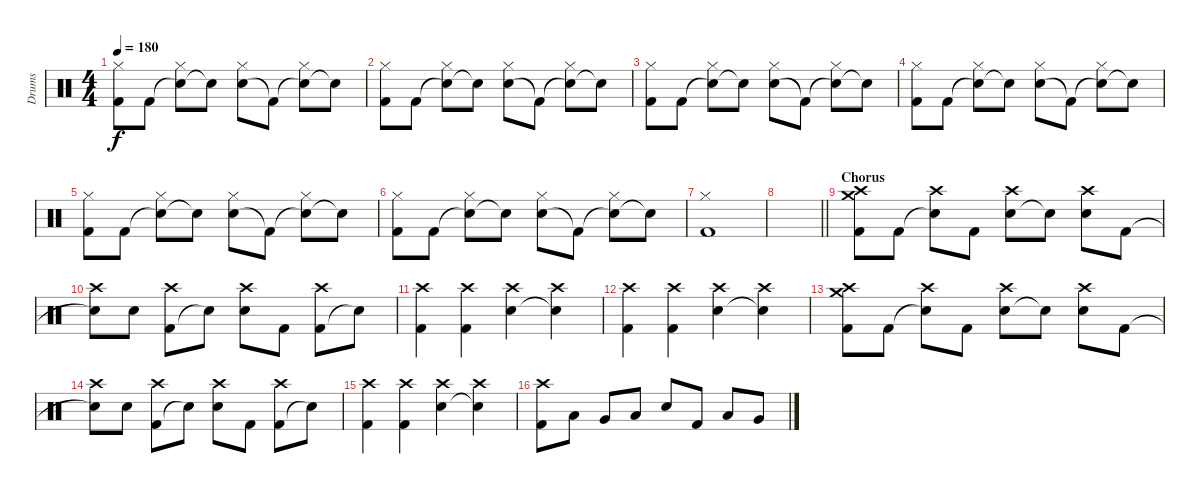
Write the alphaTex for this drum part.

\track ("Drums" "Drums") {instrument percussion}
\staff {score}
\articulation defaults
\ts (4 4)
\tempo 180
\clef neutral
\ks c
("Kick (hit) 2" "Hi-Hat (closed)").8{dy f} "Kick (hit) 2".8 ("Snare (hit)"{t} "Hi-Hat (closed)").8 "Snare (hit)"{t}.8 ("Electric Snare (hit)" "Hi-Hat (closed)").8 "Kick (hit) 2"{t}.8 ("Snare (hit)"{t} "Hi-Hat (closed)").8 "Snare (hit)"{t}.8 |
("Kick (hit) 2" "Hi-Hat (closed)").8 "Kick (hit) 2".8 ("Snare (hit)"{t} "Hi-Hat (closed)").8 "Snare (hit)"{t}.8 ("Electric Snare (hit)" "Hi-Hat (closed)").8 "Kick (hit) 2"{t}.8 ("Snare (hit)"{t} "Hi-Hat (closed)").8 "Snare (hit)"{t}.8 |
("Kick (hit) 2" "Hi-Hat (closed)").8 "Kick (hit) 2".8 ("Snare (hit)"{t} "Hi-Hat (closed)").8 "Snare (hit)"{t}.8 ("Electric Snare (hit)" "Hi-Hat (closed)").8 "Kick (hit) 2"{t}.8 ("Snare (hit)"{t} "Hi-Hat (closed)").8 "Snare (hit)"{t}.8 |
("Kick (hit) 2" "Hi-Hat (closed)").8 "Kick (hit) 2".8 ("Snare (hit)"{t} "Hi-Hat (closed)").8 "Snare (hit)"{t}.8 ("Electric Snare (hit)" "Hi-Hat (closed)").8 "Kick (hit) 2"{t}.8 ("Snare (hit)"{t} "Hi-Hat (closed)").8 "Snare (hit)"{t}.8 |
("Kick (hit) 2" "Hi-Hat (closed)").8{volume 0} "Kick (hit) 2".8 ("Snare (hit)"{t} "Hi-Hat (closed)").8 "Snare (hit)"{t}.8 ("Electric Snare (hit)" "Hi-Hat (closed)").8 "Kick (hit) 2"{t}.8 ("Snare (hit)"{t} "Hi-Hat (closed)").8 "Snare (hit)"{t}.8 |
("Kick (hit) 2" "Hi-Hat (closed)").8 "Kick (hit) 2".8 ("Snare (hit)"{t} "Hi-Hat (closed)").8 "Snare (hit)"{t}.8 ("Electric Snare (hit)" "Hi-Hat (closed)").8 "Kick (hit) 2"{t}.8 ("Snare (hit)"{t} "Hi-Hat (closed)").8 "Snare (hit)"{t}.8 |
("Kick (hit) 2" "Hi-Hat (closed)").1 |
\barLineRight lightlight
|
\section ("" "Chorus")
("Kick (hit) 2" "Crash medium (hit)" "Crash high (hit)").8{volume 13} "Kick (hit) 2".8 ("Snare (hit)"{t} "Crash high (hit)").8 "Kick (hit) 2".8 ("Electric Snare (hit)" "Crash high (hit)").8 "Snare (hit)"{t}.8 ("Electric Snare (hit)" "Crash high (hit)").8 "Kick (hit) 2".8 |
("Snare (hit)"{t} "Crash high (hit)").8 "Electric Snare (hit)".8 ("Kick (hit) 2" "Crash high (hit)").8 "Snare (hit)"{t}.8 ("Electric Snare (hit)" "Crash high (hit)").8 "Kick (hit) 2".8 ("Kick (hit) 2" "Crash high (hit)").8 "Electric Snare (hit)"{t}.8 |
("Kick (hit) 2" "Crash high (hit)").4 ("Kick (hit) 2" "Crash high (hit)").4 ("Electric Snare (hit)" "Crash high (hit)").4 ("Snare (hit)"{t} "Crash high (hit)").4 |
("Kick (hit) 2" "Crash high (hit)").4 ("Kick (hit) 2" "Crash high (hit)").4 ("Electric Snare (hit)" "Crash high (hit)").4 ("Snare (hit)"{t} "Crash high (hit)").4 |
("Kick (hit) 2" "Crash medium (hit)" "Crash high (hit)").8 "Kick (hit) 2".8 ("Snare (hit)"{t} "Crash high (hit)").8 "Kick (hit) 2".8 ("Electric Snare (hit)" "Crash high (hit)").8 "Snare (hit)"{t}.8 ("Electric Snare (hit)" "Crash high (hit)").8 "Kick (hit) 2".8 |
("Snare (hit)"{t} "Crash high (hit)").8 "Electric Snare (hit)".8 ("Kick (hit) 2" "Crash high (hit)").8 "Snare (hit)"{t}.8 ("Electric Snare (hit)" "Crash high (hit)").8 "Kick (hit) 2".8 ("Kick (hit) 2" "Crash high (hit)").8 "Electric Snare (hit)"{t}.8 |
("Kick (hit) 2" "Crash high (hit)").4 ("Kick (hit) 2" "Crash high (hit)").4 ("Electric Snare (hit)" "Crash high (hit)").4 ("Snare (hit)"{t} "Crash high (hit)").4 |
("Kick (hit) 2" "Crash high (hit)").8 "Low Tom (hit)".8 "Very Low Tom (hit)".8 "Low Floor Tom (hit)".8 "Electric Snare (hit)".8 "Kick (hit) 2".8 "Low Tom (hit)".8 "Very Low Tom (hit)".8
